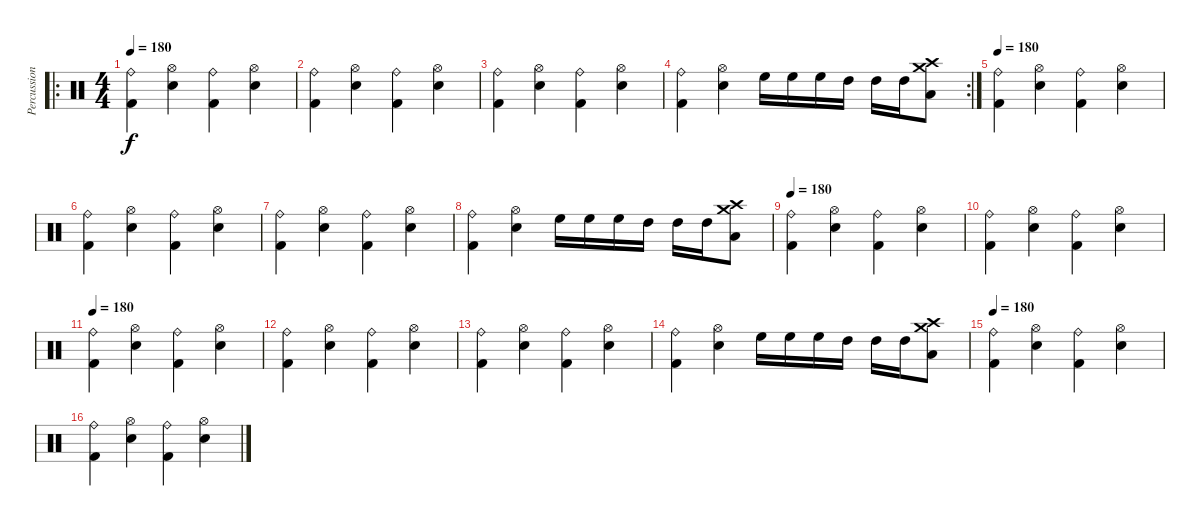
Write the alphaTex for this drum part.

\track ("Percussion" "Percussion") {instrument percussion}
\staff {score}
\articulation defaults
\ro
\ts (4 4)
\tempo 180
\clef neutral
\ks c
("Ride (bell)" "Kick (hit) 2").4{dy f} ("Hi-Hat (open)" "Snare (hit) 2").4 ("Ride (bell)" "Kick (hit) 2").4 ("Hi-Hat (open)" "Snare (hit) 2").4 |
("Ride (bell)" "Kick (hit) 2").4 ("Hi-Hat (open)" "Snare (hit) 2").4 ("Ride (bell)" "Kick (hit) 2").4 ("Hi-Hat (open)" "Snare (hit) 2").4 |
("Ride (bell)" "Kick (hit) 2").4 ("Hi-Hat (open)" "Snare (hit) 2").4 ("Ride (bell)" "Kick (hit) 2").4 ("Hi-Hat (open)" "Snare (hit) 2").4 |
\rc 2
("Ride (bell)" "Kick (hit) 2").4 ("Hi-Hat (open)" "Snare (hit) 2").4 "High Floor Tom (hit)".16 "High Floor Tom (hit)".16 "High Floor Tom (hit)".16 "High Tom (hit)".16 "High Tom (hit)".16 "High Tom (hit)".16 ("Crash high (hit)" "Crash medium (hit)" "Low Floor Tom (hit)").8 |
\tempo 180
("Ride (bell)" "Kick (hit) 2").4 ("Hi-Hat (open)" "Snare (hit) 2").4 ("Ride (bell)" "Kick (hit) 2").4 ("Hi-Hat (open)" "Snare (hit) 2").4 |
("Ride (bell)" "Kick (hit) 2").4 ("Hi-Hat (open)" "Snare (hit) 2").4 ("Ride (bell)" "Kick (hit) 2").4 ("Hi-Hat (open)" "Snare (hit) 2").4 |
("Ride (bell)" "Kick (hit) 2").4 ("Hi-Hat (open)" "Snare (hit) 2").4 ("Ride (bell)" "Kick (hit) 2").4 ("Hi-Hat (open)" "Snare (hit) 2").4 |
("Ride (bell)" "Kick (hit) 2").4 ("Hi-Hat (open)" "Snare (hit) 2").4 "High Floor Tom (hit)".16 "High Floor Tom (hit)".16 "High Floor Tom (hit)".16 "High Tom (hit)".16 "High Tom (hit)".16 "High Tom (hit)".16 ("Crash high (hit)" "Crash medium (hit)" "Low Floor Tom (hit)").8 |
\tempo 180
("Ride (bell)" "Kick (hit) 2").4 ("Hi-Hat (open)" "Snare (hit) 2").4 ("Ride (bell)" "Kick (hit) 2").4 ("Hi-Hat (open)" "Snare (hit) 2").4 |
("Ride (bell)" "Kick (hit) 2").4 ("Hi-Hat (open)" "Snare (hit) 2").4 ("Ride (bell)" "Kick (hit) 2").4 ("Hi-Hat (open)" "Snare (hit) 2").4 |
\tempo 180
("Ride (bell)" "Kick (hit) 2").4 ("Hi-Hat (open)" "Snare (hit) 2").4 ("Ride (bell)" "Kick (hit) 2").4 ("Hi-Hat (open)" "Snare (hit) 2").4 |
("Ride (bell)" "Kick (hit) 2").4 ("Hi-Hat (open)" "Snare (hit) 2").4 ("Ride (bell)" "Kick (hit) 2").4 ("Hi-Hat (open)" "Snare (hit) 2").4 |
("Ride (bell)" "Kick (hit) 2").4 ("Hi-Hat (open)" "Snare (hit) 2").4 ("Ride (bell)" "Kick (hit) 2").4 ("Hi-Hat (open)" "Snare (hit) 2").4 |
("Ride (bell)" "Kick (hit) 2").4 ("Hi-Hat (open)" "Snare (hit) 2").4 "High Floor Tom (hit)".16 "High Floor Tom (hit)".16 "High Floor Tom (hit)".16 "High Tom (hit)".16 "High Tom (hit)".16 "High Tom (hit)".16 ("Crash high (hit)" "Crash medium (hit)" "Low Floor Tom (hit)").8 |
\tempo 180
("Ride (bell)" "Kick (hit) 2").4 ("Hi-Hat (open)" "Snare (hit) 2").4 ("Ride (bell)" "Kick (hit) 2").4 ("Hi-Hat (open)" "Snare (hit) 2").4 |
("Ride (bell)" "Kick (hit) 2").4 ("Hi-Hat (open)" "Snare (hit) 2").4 ("Ride (bell)" "Kick (hit) 2").4 ("Hi-Hat (open)" "Snare (hit) 2").4
